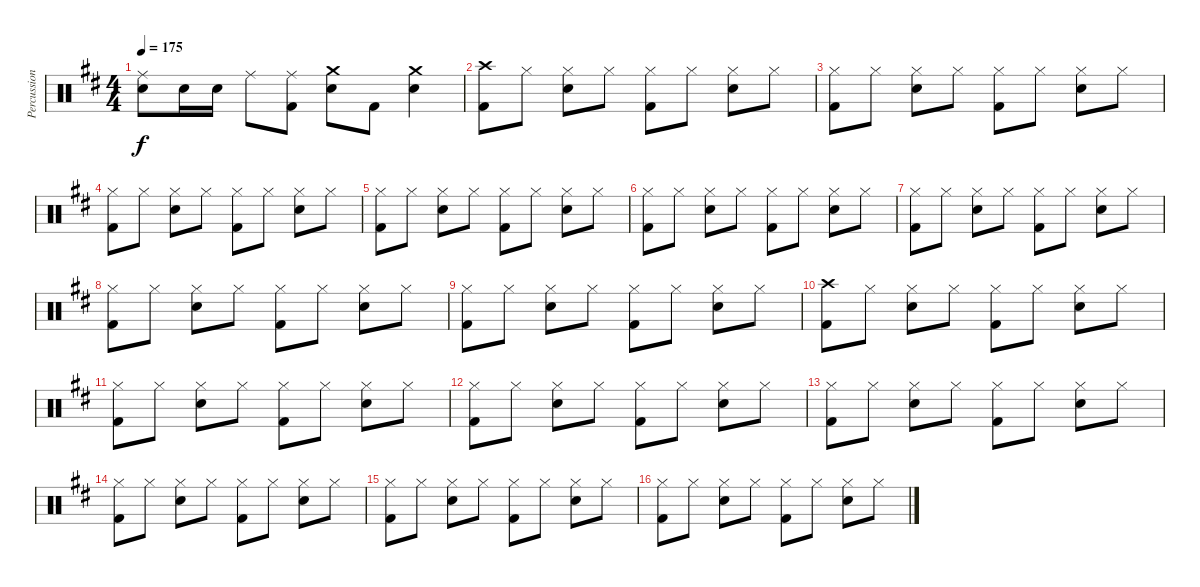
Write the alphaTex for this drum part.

\track ("Percussion" "Percussion") {instrument percussion}
\staff {score}
\articulation defaults
\ts (4 4)
\tempo 175
\clef neutral
\ks d
("Ride (middle)" "Electric Snare (hit)").8{dy f} "Electric Snare (hit)".16 "Electric Snare (hit)".16 "Ride (middle)".8 ("Ride (middle)" "Kick (hit) 2").8 ("Crash medium (hit)" "Electric Snare (hit)").8 "Kick (hit) 2".8 ("Crash medium (hit)" "Electric Snare (hit)").4 |
("Crash high (hit)" "Kick (hit) 2").8 "Hi-Hat (closed)".8 ("Hi-Hat (closed)" "Electric Snare (hit)").8 "Hi-Hat (closed)".8 ("Hi-Hat (closed)" "Kick (hit) 2").8 "Hi-Hat (closed)".8 ("Hi-Hat (closed)" "Electric Snare (hit)").8 "Hi-Hat (closed)".8 |
("Hi-Hat (closed)" "Kick (hit) 2").8 "Hi-Hat (closed)".8 ("Hi-Hat (closed)" "Electric Snare (hit)").8 "Hi-Hat (closed)".8 ("Hi-Hat (closed)" "Kick (hit) 2").8 "Hi-Hat (closed)".8 ("Hi-Hat (closed)" "Electric Snare (hit)").8 "Hi-Hat (closed)".8 |
("Hi-Hat (closed)" "Kick (hit) 2").8 "Hi-Hat (closed)".8 ("Hi-Hat (closed)" "Electric Snare (hit)").8 "Hi-Hat (closed)".8 ("Hi-Hat (closed)" "Kick (hit) 2").8 "Hi-Hat (closed)".8 ("Hi-Hat (closed)" "Electric Snare (hit)").8 "Hi-Hat (closed)".8 |
("Hi-Hat (closed)" "Kick (hit) 2").8 "Hi-Hat (closed)".8 ("Hi-Hat (closed)" "Electric Snare (hit)").8 "Hi-Hat (closed)".8 ("Hi-Hat (closed)" "Kick (hit) 2").8 "Hi-Hat (closed)".8 ("Hi-Hat (closed)" "Electric Snare (hit)").8 "Hi-Hat (closed)".8 |
("Hi-Hat (closed)" "Kick (hit) 2").8 "Hi-Hat (closed)".8 ("Hi-Hat (closed)" "Electric Snare (hit)").8 "Hi-Hat (closed)".8 ("Hi-Hat (closed)" "Kick (hit) 2").8 "Hi-Hat (closed)".8 ("Hi-Hat (closed)" "Electric Snare (hit)").8 "Hi-Hat (closed)".8 |
("Hi-Hat (closed)" "Kick (hit) 2").8 "Hi-Hat (closed)".8 ("Hi-Hat (closed)" "Electric Snare (hit)").8 "Hi-Hat (closed)".8 ("Hi-Hat (closed)" "Kick (hit) 2").8 "Hi-Hat (closed)".8 ("Hi-Hat (closed)" "Electric Snare (hit)").8 "Hi-Hat (closed)".8 |
("Hi-Hat (closed)" "Kick (hit) 2").8 "Hi-Hat (closed)".8 ("Hi-Hat (closed)" "Electric Snare (hit)").8 "Hi-Hat (closed)".8 ("Hi-Hat (closed)" "Kick (hit) 2").8 "Hi-Hat (closed)".8 ("Hi-Hat (closed)" "Electric Snare (hit)").8 "Hi-Hat (closed)".8 |
("Hi-Hat (closed)" "Kick (hit) 2").8 "Hi-Hat (closed)".8 ("Hi-Hat (closed)" "Electric Snare (hit)").8 "Hi-Hat (closed)".8 ("Hi-Hat (closed)" "Kick (hit) 2").8 "Hi-Hat (closed)".8 ("Hi-Hat (closed)" "Electric Snare (hit)").8 "Hi-Hat (closed)".8 |
("Crash high (hit)" "Kick (hit) 2").8 "Hi-Hat (closed)".8 ("Hi-Hat (closed)" "Electric Snare (hit)").8 "Hi-Hat (closed)".8 ("Hi-Hat (closed)" "Kick (hit) 2").8 "Hi-Hat (closed)".8 ("Hi-Hat (closed)" "Electric Snare (hit)").8 "Hi-Hat (closed)".8 |
("Hi-Hat (closed)" "Kick (hit) 2").8 "Hi-Hat (closed)".8 ("Hi-Hat (closed)" "Electric Snare (hit)").8 "Hi-Hat (closed)".8 ("Hi-Hat (closed)" "Kick (hit) 2").8 "Hi-Hat (closed)".8 ("Hi-Hat (closed)" "Electric Snare (hit)").8 "Hi-Hat (closed)".8 |
("Hi-Hat (closed)" "Kick (hit) 2").8 "Hi-Hat (closed)".8 ("Hi-Hat (closed)" "Electric Snare (hit)").8 "Hi-Hat (closed)".8 ("Hi-Hat (closed)" "Kick (hit) 2").8 "Hi-Hat (closed)".8 ("Hi-Hat (closed)" "Electric Snare (hit)").8 "Hi-Hat (closed)".8 |
("Hi-Hat (closed)" "Kick (hit) 2").8 "Hi-Hat (closed)".8 ("Hi-Hat (closed)" "Electric Snare (hit)").8 "Hi-Hat (closed)".8 ("Hi-Hat (closed)" "Kick (hit) 2").8 "Hi-Hat (closed)".8 ("Hi-Hat (closed)" "Electric Snare (hit)").8 "Hi-Hat (closed)".8 |
("Hi-Hat (closed)" "Kick (hit) 2").8 "Hi-Hat (closed)".8 ("Hi-Hat (closed)" "Electric Snare (hit)").8 "Hi-Hat (closed)".8 ("Hi-Hat (closed)" "Kick (hit) 2").8 "Hi-Hat (closed)".8 ("Hi-Hat (closed)" "Electric Snare (hit)").8 "Hi-Hat (closed)".8 |
("Hi-Hat (closed)" "Kick (hit) 2").8 "Hi-Hat (closed)".8 ("Hi-Hat (closed)" "Electric Snare (hit)").8 "Hi-Hat (closed)".8 ("Hi-Hat (closed)" "Kick (hit) 2").8 "Hi-Hat (closed)".8 ("Hi-Hat (closed)" "Electric Snare (hit)").8 "Hi-Hat (closed)".8 |
("Hi-Hat (closed)" "Kick (hit) 2").8 "Hi-Hat (closed)".8 ("Hi-Hat (closed)" "Electric Snare (hit)").8 "Hi-Hat (closed)".8 ("Hi-Hat (closed)" "Kick (hit) 2").8 "Hi-Hat (closed)".8 ("Hi-Hat (closed)" "Electric Snare (hit)").8 "Hi-Hat (closed)".8
